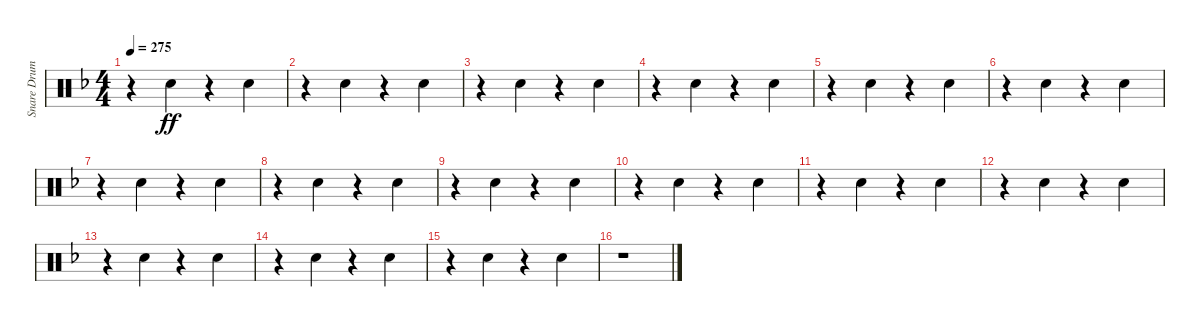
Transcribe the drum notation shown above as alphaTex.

\track ("Snare Drum" "Snare Drum") {instrument percussion}
\staff {score}
\articulation defaults
\ts (4 4)
\tempo 275
\clef neutral
\ks dminor
r.4{dy ff} "Electric Snare (hit)".4 r.4 "Electric Snare (hit)".4 |
r.4 "Electric Snare (hit)".4 r.4 "Electric Snare (hit)".4 |
r.4 "Electric Snare (hit)".4 r.4 "Electric Snare (hit)".4 |
r.4 "Electric Snare (hit)".4 r.4 "Electric Snare (hit)".4 |
r.4 "Electric Snare (hit)".4 r.4 "Electric Snare (hit)".4 |
r.4 "Electric Snare (hit)".4 r.4 "Electric Snare (hit)".4 |
r.4 "Electric Snare (hit)".4 r.4 "Electric Snare (hit)".4 |
r.4 "Electric Snare (hit)".4 r.4 "Electric Snare (hit)".4 |
r.4 "Electric Snare (hit)".4 r.4 "Electric Snare (hit)".4 |
r.4 "Electric Snare (hit)".4 r.4 "Electric Snare (hit)".4 |
r.4 "Electric Snare (hit)".4 r.4 "Electric Snare (hit)".4 |
r.4 "Electric Snare (hit)".4 r.4 "Electric Snare (hit)".4 |
r.4 "Electric Snare (hit)".4 r.4 "Electric Snare (hit)".4 |
r.4 "Electric Snare (hit)".4 r.4 "Electric Snare (hit)".4 |
r.4 "Electric Snare (hit)".4 r.4 "Electric Snare (hit)".4 |
r.1
